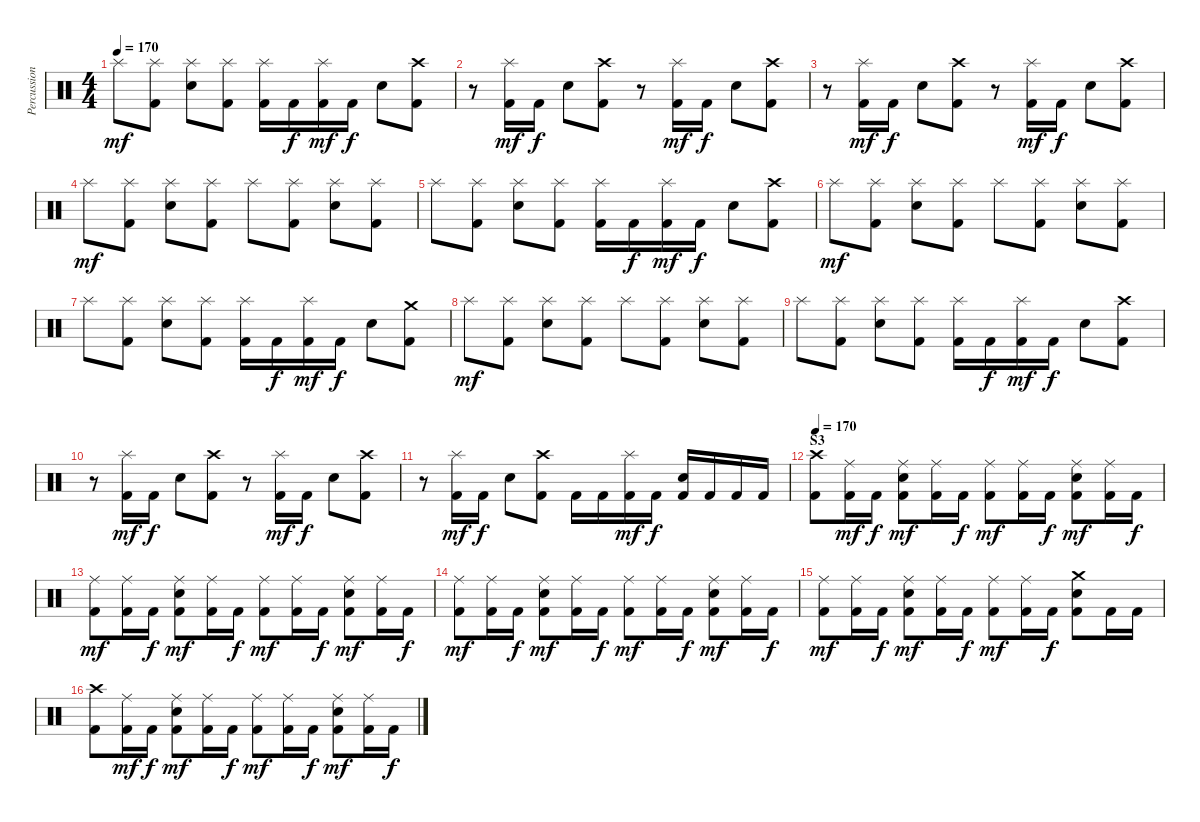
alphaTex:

\track ("Percussion" "Percussion") {instrument percussion}
\staff {score}
\articulation defaults
\ts (4 4)
\tempo 170
\clef neutral
\ks c "Splash (hit)".8{dy mf}
("Splash (hit)" "Kick (hit) 2").8 ("Splash (hit)" "Electric Snare (hit)").8 ("Splash (hit)" "Kick (hit) 2").8 ("Splash (hit)" "Kick (hit) 2").16 "Kick (hit) 2".16{dy f} ("Splash (hit)" "Kick (hit) 2").16{dy mf} "Kick (hit) 2".16{dy f} "Electric Snare (hit)".8 ("Crash high (hit)" "Kick (hit) 2").8 |
r.8 ("Splash (hit)" "Kick (hit) 2").16{dy mf} "Kick (hit) 2".16{dy f} "Electric Snare (hit)".8 ("Crash high (hit)" "Kick (hit) 2").8 r.8 ("Splash (hit)" "Kick (hit) 2").16{dy mf} "Kick (hit) 2".16{dy f} "Electric Snare (hit)".8 ("Crash high (hit)" "Kick (hit) 2").8 |
r.8 ("Splash (hit)" "Kick (hit) 2").16{dy mf} "Kick (hit) 2".16{dy f} "Electric Snare (hit)".8 ("Crash high (hit)" "Kick (hit) 2").8 r.8 ("Splash (hit)" "Kick (hit) 2").16{dy mf} "Kick (hit) 2".16{dy f} "Electric Snare (hit)".8 ("Crash high (hit)" "Kick (hit) 2").8 |
\section ("" "")
"Splash (hit)".8{dy mf} ("Splash (hit)" "Kick (hit) 2").8 ("Splash (hit)" "Electric Snare (hit)").8 ("Splash (hit)" "Kick (hit) 2").8 "Splash (hit)".8 ("Splash (hit)" "Kick (hit) 2").8 ("Splash (hit)" "Electric Snare (hit)").8 ("Splash (hit)" "Kick (hit) 2").8 |
"Splash (hit)".8 ("Splash (hit)" "Kick (hit) 2").8 ("Splash (hit)" "Electric Snare (hit)").8 ("Splash (hit)" "Kick (hit) 2").8 ("Splash (hit)" "Kick (hit) 2").16 "Kick (hit) 2".16{dy f} ("Splash (hit)" "Kick (hit) 2").16{dy mf} "Kick (hit) 2".16{dy f} "Electric Snare (hit)".8 ("Crash high (hit)" "Kick (hit) 2").8 |
"Splash (hit)".8{dy mf} ("Splash (hit)" "Kick (hit) 2").8 ("Splash (hit)" "Electric Snare (hit)").8 ("Splash (hit)" "Kick (hit) 2").8 "Splash (hit)".8 ("Splash (hit)" "Kick (hit) 2").8 ("Splash (hit)" "Electric Snare (hit)").8 ("Splash (hit)" "Kick (hit) 2").8 |
"Splash (hit)".8 ("Splash (hit)" "Kick (hit) 2").8 ("Splash (hit)" "Electric Snare (hit)").8 ("Splash (hit)" "Kick (hit) 2").8 ("Splash (hit)" "Kick (hit) 2").16 "Kick (hit) 2".16{dy f} ("Splash (hit)" "Kick (hit) 2").16{dy mf} "Kick (hit) 2".16{dy f} "Electric Snare (hit)".8 ("Crash medium (hit)" "Kick (hit) 2").8 |
"Splash (hit)".8{dy mf} ("Splash (hit)" "Kick (hit) 2").8 ("Splash (hit)" "Electric Snare (hit)").8 ("Splash (hit)" "Kick (hit) 2").8 "Splash (hit)".8 ("Splash (hit)" "Kick (hit) 2").8 ("Splash (hit)" "Electric Snare (hit)").8 ("Splash (hit)" "Kick (hit) 2").8 |
"Splash (hit)".8 ("Splash (hit)" "Kick (hit) 2").8 ("Splash (hit)" "Electric Snare (hit)").8 ("Splash (hit)" "Kick (hit) 2").8 ("Splash (hit)" "Kick (hit) 2").16 "Kick (hit) 2".16{dy f} ("Splash (hit)" "Kick (hit) 2").16{dy mf} "Kick (hit) 2".16{dy f} "Electric Snare (hit)".8 ("Crash high (hit)" "Kick (hit) 2").8 |
r.8 ("Splash (hit)" "Kick (hit) 2").16{dy mf} "Kick (hit) 2".16{dy f} "Electric Snare (hit)".8 ("Crash high (hit)" "Kick (hit) 2").8 r.8 ("Splash (hit)" "Kick (hit) 2").16{dy mf} "Kick (hit) 2".16{dy f} "Electric Snare (hit)".8 ("Crash high (hit)" "Kick (hit) 2").8 |
r.8 ("Splash (hit)" "Kick (hit) 2").16{dy mf} "Kick (hit) 2".16{dy f} "Electric Snare (hit)".8 ("Crash high (hit)" "Kick (hit) 2").8 "Kick (hit) 2".16 "Kick (hit) 2".16 ("Splash (hit)" "Kick (hit) 2").16{dy mf} "Kick (hit) 2".16{dy f} ("Electric Snare (hit)" "Kick (hit) 2").16 "Kick (hit) 2".16 "Kick (hit) 2".16 "Kick (hit) 2".16 |
\section ("" "S3")
\tempo 170
("Crash high (hit)" "Kick (hit) 2").8 ("Ride (middle)" "Kick (hit) 2").16{dy mf} "Kick (hit) 2".16{dy f} ("Ride (middle)" "Electric Snare (hit)" "Kick (hit) 2").8{dy mf} ("Ride (middle)" "Kick (hit) 2").16 "Kick (hit) 2".16{dy f} ("Ride (middle)" "Kick (hit) 2").8{dy mf} ("Ride (middle)" "Kick (hit) 2").16 "Kick (hit) 2".16{dy f} ("Ride (middle)" "Electric Snare (hit)" "Kick (hit) 2").8{dy mf} ("Ride (middle)" "Kick (hit) 2").16 "Kick (hit) 2".16{dy f} |
("Ride (middle)" "Kick (hit) 2").8{dy mf} ("Ride (middle)" "Kick (hit) 2").16 "Kick (hit) 2".16{dy f} ("Ride (middle)" "Electric Snare (hit)" "Kick (hit) 2").8{dy mf} ("Ride (middle)" "Kick (hit) 2").16 "Kick (hit) 2".16{dy f} ("Ride (middle)" "Kick (hit) 2").8{dy mf} ("Ride (middle)" "Kick (hit) 2").16 "Kick (hit) 2".16{dy f} ("Ride (middle)" "Electric Snare (hit)" "Kick (hit) 2").8{dy mf} ("Ride (middle)" "Kick (hit) 2").16 "Kick (hit) 2".16{dy f} |
("Ride (middle)" "Kick (hit) 2").8{dy mf} ("Ride (middle)" "Kick (hit) 2").16 "Kick (hit) 2".16{dy f} ("Ride (middle)" "Electric Snare (hit)" "Kick (hit) 2").8{dy mf} ("Ride (middle)" "Kick (hit) 2").16 "Kick (hit) 2".16{dy f} ("Ride (middle)" "Kick (hit) 2").8{dy mf} ("Ride (middle)" "Kick (hit) 2").16 "Kick (hit) 2".16{dy f} ("Ride (middle)" "Electric Snare (hit)" "Kick (hit) 2").8{dy mf} ("Ride (middle)" "Kick (hit) 2").16 "Kick (hit) 2".16{dy f} |
("Ride (middle)" "Kick (hit) 2").8{dy mf} ("Ride (middle)" "Kick (hit) 2").16 "Kick (hit) 2".16{dy f} ("Ride (middle)" "Electric Snare (hit)" "Kick (hit) 2").8{dy mf} ("Ride (middle)" "Kick (hit) 2").16 "Kick (hit) 2".16{dy f} ("Ride (middle)" "Kick (hit) 2").8{dy mf} ("Ride (middle)" "Kick (hit) 2").16 "Kick (hit) 2".16{dy f} ("Crash medium (hit)" "Electric Snare (hit)" "Kick (hit) 2").8 "Kick (hit) 2".16 "Kick (hit) 2".16 |
("Crash high (hit)" "Kick (hit) 2").8 ("Ride (middle)" "Kick (hit) 2").16{dy mf} "Kick (hit) 2".16{dy f} ("Ride (middle)" "Electric Snare (hit)" "Kick (hit) 2").8{dy mf} ("Ride (middle)" "Kick (hit) 2").16 "Kick (hit) 2".16{dy f} ("Ride (middle)" "Kick (hit) 2").8{dy mf} ("Ride (middle)" "Kick (hit) 2").16 "Kick (hit) 2".16{dy f} ("Ride (middle)" "Electric Snare (hit)" "Kick (hit) 2").8{dy mf} ("Ride (middle)" "Kick (hit) 2").16 "Kick (hit) 2".16{dy f}
